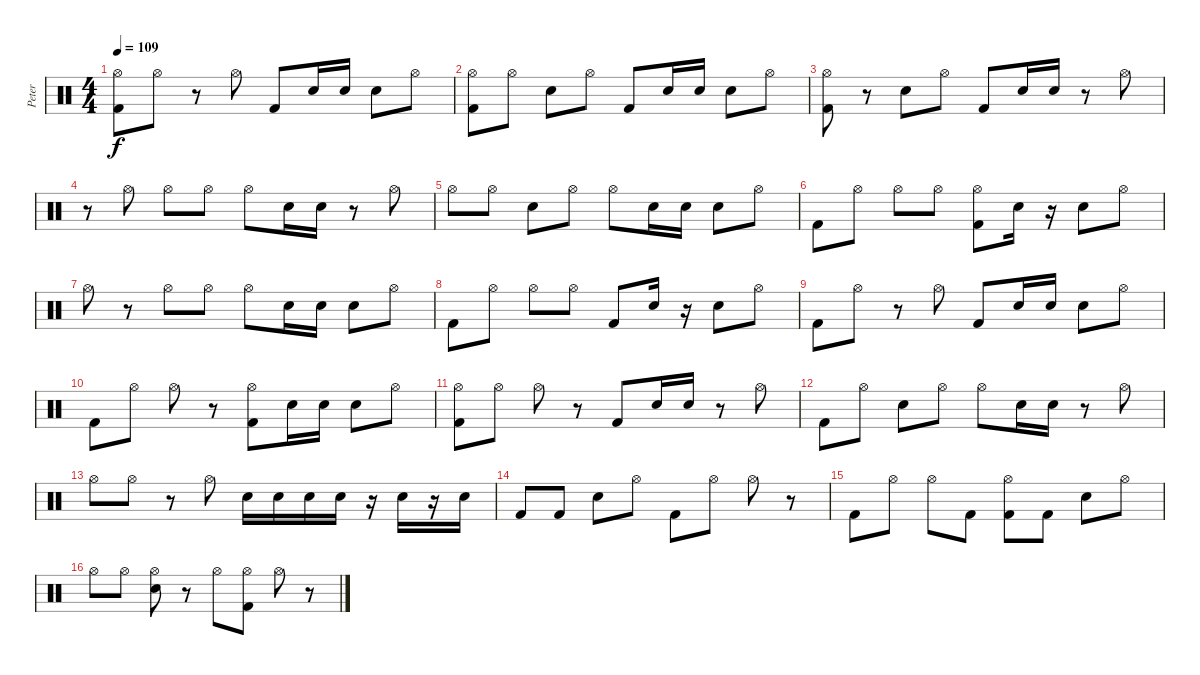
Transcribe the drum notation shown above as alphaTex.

\track ("Peter" "Peter") {instrument percussion}
\staff {score}
\articulation defaults
\ts (4 4)
\tempo 109
\clef neutral
\ks c
("Kick (hit) 2" "Hi-Hat (open)").8{dy f} "Hi-Hat (open)".8 r.8 "Hi-Hat (open)".8 "Kick (hit) 2".8 "Electric Snare (hit)".16 "Electric Snare (hit)".16 "Electric Snare (hit)".8 "Hi-Hat (open)".8 |
("Kick (hit) 2" "Hi-Hat (open)").8 "Hi-Hat (open)".8 "Electric Snare (hit)".8 "Hi-Hat (open)".8 "Kick (hit) 2".8 "Electric Snare (hit)".16 "Electric Snare (hit)".16 "Electric Snare (hit)".8 "Hi-Hat (open)".8 |
("Kick (hit) 2" "Hi-Hat (open)").8 r.8 "Electric Snare (hit)".8 "Hi-Hat (open)".8 "Kick (hit) 2".8 "Electric Snare (hit)".16 "Electric Snare (hit)".16 r.8 "Hi-Hat (open)".8 |
r.8 "Hi-Hat (open)".8 "Hi-Hat (open)".8 "Hi-Hat (open)".8 "Hi-Hat (open)".8 "Electric Snare (hit)".16 "Electric Snare (hit)".16 r.8 "Hi-Hat (open)".8 |
"Hi-Hat (open)".8 "Hi-Hat (open)".8 "Electric Snare (hit)".8 "Hi-Hat (open)".8 "Hi-Hat (open)".8 "Electric Snare (hit)".16 "Electric Snare (hit)".16 "Electric Snare (hit)".8 "Hi-Hat (open)".8 |
"Kick (hit) 2".8 "Hi-Hat (open)".8 "Hi-Hat (open)".8 "Hi-Hat (open)".8 ("Kick (hit) 2" "Hi-Hat (open)").8 "Electric Snare (hit)".16 r.16 "Electric Snare (hit)".8 "Hi-Hat (open)".8 |
"Hi-Hat (open)".8 r.8 "Hi-Hat (open)".8 "Hi-Hat (open)".8 "Hi-Hat (open)".8 "Electric Snare (hit)".16 "Electric Snare (hit)".16 "Electric Snare (hit)".8 "Hi-Hat (open)".8 |
"Kick (hit) 2".8 "Hi-Hat (open)".8 "Hi-Hat (open)".8 "Hi-Hat (open)".8 "Kick (hit) 2".8 "Electric Snare (hit)".16 r.16 "Electric Snare (hit)".8 "Hi-Hat (open)".8 |
"Kick (hit) 2".8 "Hi-Hat (open)".8 r.8 "Hi-Hat (open)".8 "Kick (hit) 2".8 "Electric Snare (hit)".16 "Electric Snare (hit)".16 "Electric Snare (hit)".8 "Hi-Hat (open)".8 |
"Kick (hit) 2".8 "Hi-Hat (open)".8 "Hi-Hat (open)".8 r.8 ("Hi-Hat (open)" "Kick (hit) 2").8 "Electric Snare (hit)".16 "Electric Snare (hit)".16 "Electric Snare (hit)".8 "Hi-Hat (open)".8 |
("Kick (hit) 2" "Hi-Hat (open)").8 "Hi-Hat (open)".8 "Hi-Hat (open)".8 r.8 "Kick (hit) 2".8 "Electric Snare (hit)".16 "Electric Snare (hit)".16 r.8 "Hi-Hat (open)".8 |
"Kick (hit) 2".8 "Hi-Hat (open)".8 "Electric Snare (hit)".8 "Hi-Hat (open)".8 "Hi-Hat (open)".8 "Electric Snare (hit)".16 "Electric Snare (hit)".16 r.8 "Hi-Hat (open)".8 |
"Hi-Hat (open)".8 "Hi-Hat (open)".8 r.8 "Hi-Hat (open)".8 "Electric Snare (hit)".16 "Electric Snare (hit)".16 "Electric Snare (hit)".16 "Electric Snare (hit)".16 r.16 "Electric Snare (hit)".16 r.16 "Electric Snare (hit)".16 |
"Kick (hit) 2".8 "Kick (hit) 2".8 "Electric Snare (hit)".8 "Hi-Hat (open)".8 "Kick (hit) 2".8 "Hi-Hat (open)".8 "Hi-Hat (open)".8 r.8 |
"Kick (hit) 2".8 "Hi-Hat (open)".8 "Hi-Hat (open)".8 "Kick (hit) 2".8 ("Hi-Hat (open)" "Kick (hit) 2").8 "Kick (hit) 2".8 "Electric Snare (hit)".8 "Hi-Hat (open)".8 |
"Hi-Hat (open)".8 "Hi-Hat (open)".8 ("Electric Snare (hit)" "Hi-Hat (open)").8 r.8 "Hi-Hat (open)".8 ("Hi-Hat (open)" "Kick (hit) 2").8 "Hi-Hat (open)".8 r.8
